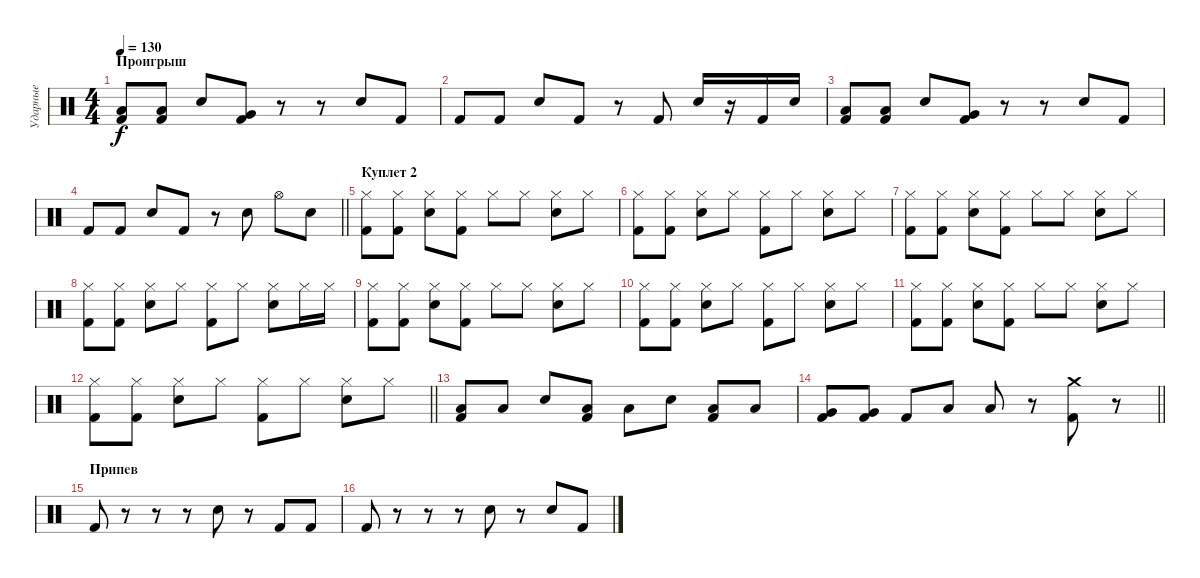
\track ("Ударные" "Ударные") {instrument percussion}
\staff {score}
\articulation defaults
\ts (4 4)
\section ("" "Проигрыш")
\tempo 130
\clef neutral
\ks c
("Low Floor Tom (hit)" "Kick (hit) 2").8{dy f} ("Low Floor Tom (hit)" "Kick (hit) 2").8 "Snare (hit) 2".8 ("Very Low Tom (hit)" "Kick (hit) 2").8 r.8 r.8 "Snare (hit) 2".8 "Kick (hit) 2".8 |
"Kick (hit) 2".8 "Kick (hit) 2".8 "Snare (hit) 2".8 "Kick (hit) 2".8 r.8 "Kick (hit) 2".8 "Snare (hit) 2".16 r.16 "Kick (hit) 2".16 "Snare (hit) 2".16 |
("Low Floor Tom (hit)" "Kick (hit) 2").8 ("Low Floor Tom (hit)" "Kick (hit) 2").8 "Snare (hit) 2".8 ("Very Low Tom (hit)" "Kick (hit) 2").8 r.8 r.8 "Snare (hit) 2".8 "Kick (hit) 2".8 |
\barLineRight lightlight "Kick (hit) 2".8 "Kick (hit) 2".8 "Snare (hit) 2".8 "Kick (hit) 2".8
r.8 "Snare (hit) 2".8 "Hi-Hat (open)".8 "Snare (hit) 2".8 |
\section ("" "Куплет 2")
("Hi-Hat (closed)" "Kick (hit) 2").8 ("Hi-Hat (closed)" "Kick (hit) 2").8 ("Hi-Hat (closed)" "Snare (hit) 2").8 ("Hi-Hat (closed)" "Kick (hit) 2").8 "Hi-Hat (closed)".8 "Hi-Hat (closed)".8 ("Hi-Hat (closed)" "Snare (hit) 2").8 "Hi-Hat (closed)".8 |
("Hi-Hat (closed)" "Kick (hit) 2").8 ("Hi-Hat (closed)" "Kick (hit) 2").8 ("Hi-Hat (closed)" "Snare (hit) 2").8 "Hi-Hat (closed)".8 ("Hi-Hat (closed)" "Kick (hit) 2").8 "Hi-Hat (closed)".8 ("Hi-Hat (closed)" "Snare (hit) 2").8 "Hi-Hat (closed)".8 |
("Hi-Hat (closed)" "Kick (hit) 2").8 ("Hi-Hat (closed)" "Kick (hit) 2").8 ("Hi-Hat (closed)" "Snare (hit) 2").8 ("Hi-Hat (closed)" "Kick (hit) 2").8 "Hi-Hat (closed)".8 "Hi-Hat (closed)".8 ("Hi-Hat (closed)" "Snare (hit) 2").8 "Hi-Hat (closed)".8 |
("Hi-Hat (closed)" "Kick (hit) 2").8 ("Hi-Hat (closed)" "Kick (hit) 2").8 ("Hi-Hat (closed)" "Snare (hit) 2").8 "Hi-Hat (closed)".8 ("Hi-Hat (closed)" "Kick (hit) 2").8 "Hi-Hat (closed)".8 ("Hi-Hat (closed)" "Snare (hit) 2").8 "Hi-Hat (closed)".16 "Hi-Hat (closed)".16 |
("Hi-Hat (closed)" "Kick (hit) 2").8 ("Hi-Hat (closed)" "Kick (hit) 2").8 ("Hi-Hat (closed)" "Snare (hit) 2").8 ("Hi-Hat (closed)" "Kick (hit) 2").8 "Hi-Hat (closed)".8 "Hi-Hat (closed)".8 ("Hi-Hat (closed)" "Snare (hit) 2").8 "Hi-Hat (closed)".8 |
("Hi-Hat (closed)" "Kick (hit) 2").8 ("Hi-Hat (closed)" "Kick (hit) 2").8 ("Hi-Hat (closed)" "Snare (hit) 2").8 "Hi-Hat (closed)".8 ("Hi-Hat (closed)" "Kick (hit) 2").8 "Hi-Hat (closed)".8 ("Hi-Hat (closed)" "Snare (hit) 2").8 "Hi-Hat (closed)".8 |
("Hi-Hat (closed)" "Kick (hit) 2").8 ("Hi-Hat (closed)" "Kick (hit) 2").8 ("Hi-Hat (closed)" "Snare (hit) 2").8 ("Hi-Hat (closed)" "Kick (hit) 2").8 "Hi-Hat (closed)".8 "Hi-Hat (closed)".8 ("Hi-Hat (closed)" "Snare (hit) 2").8 "Hi-Hat (closed)".8 |
\barLineRight lightlight
("Hi-Hat (closed)" "Kick (hit) 2").8 ("Hi-Hat (closed)" "Kick (hit) 2").8 ("Hi-Hat (closed)" "Snare (hit) 2").8 "Hi-Hat (closed)".8 ("Hi-Hat (closed)" "Kick (hit) 2").8 "Hi-Hat (closed)".8 ("Hi-Hat (closed)" "Snare (hit) 2").8 "Hi-Hat (closed)".8 |
("Low Floor Tom (hit)" "Kick (hit) 2").8 "Low Floor Tom (hit)".8 "Snare (hit) 2".8 ("Low Floor Tom (hit)" "Kick (hit) 2").8 "Low Floor Tom (hit)".8 "Snare (hit) 2".8 ("Low Floor Tom (hit)" "Kick (hit) 2").8 "Low Floor Tom (hit)".8 |
\barLineRight lightlight
("Very Low Tom (hit)" "Kick (hit) 2").8 ("Very Low Tom (hit)" "Kick (hit) 2").8 "Kick (hit) 2".8 "Low Tom (hit)".8 "Low Tom (hit)".8 r.8 ("Crash medium (hit)" "Kick (hit) 2").8 r.8 |
\section ("" "Припев")
"Kick (hit) 2".8 r.8 r.8 r.8 "Snare (hit) 2".8 r.8 "Kick (hit) 2".8 "Kick (hit) 2".8 |
"Kick (hit) 2".8 r.8 r.8 r.8 "Snare (hit) 2".8 r.8 "Snare (hit) 2".8 "Kick (hit) 2".8
